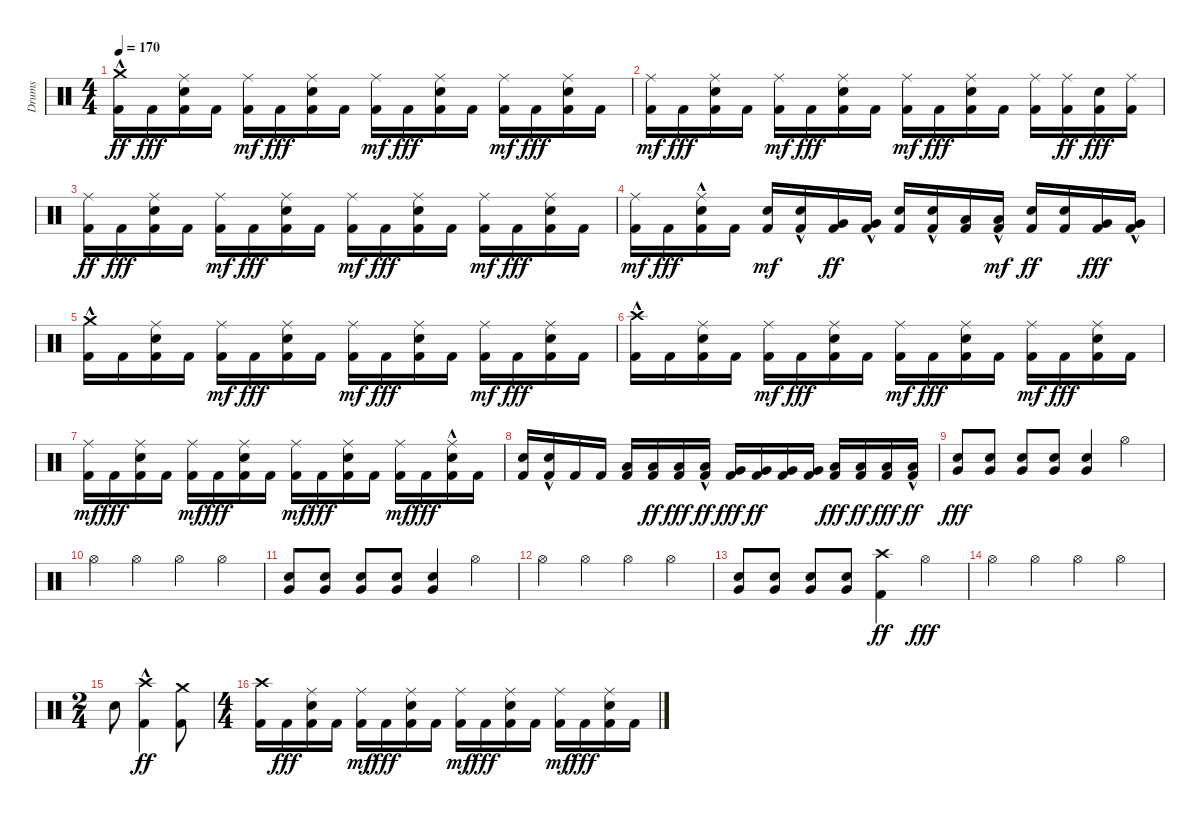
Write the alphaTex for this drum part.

\track ("Drums" "Drums") {instrument percussion}
\staff {score}
\articulation defaults
\ts (4 4)
\tempo 170
\clef neutral
\ks c
("Kick (hit) 2" "Crash medium (hit)"{hac}).16{dy ff} "Kick (hit) 2".16{dy fff} ("Kick (hit) 2" "Snare (hit) 2" "Ride (middle)").16 "Kick (hit) 2".16 ("Kick (hit) 2" "Ride (middle)").16{dy mf} "Kick (hit) 2".16{dy fff} ("Kick (hit) 2" "Snare (hit) 2" "Ride (middle)").16 "Kick (hit) 2".16 ("Kick (hit) 2" "Ride (middle)").16{dy mf} "Kick (hit) 2".16{dy fff} ("Kick (hit) 2" "Snare (hit) 2" "Ride (middle)").16 "Kick (hit) 2".16 ("Kick (hit) 2" "Ride (middle)").16{dy mf} "Kick (hit) 2".16{dy fff} ("Kick (hit) 2" "Snare (hit) 2" "Ride (middle)").16 "Kick (hit) 2".16 |
("Kick (hit) 2" "Ride (middle)").16{dy mf} "Kick (hit) 2".16{dy fff} ("Kick (hit) 2" "Snare (hit) 2" "Ride (middle)").16 "Kick (hit) 2".16 ("Kick (hit) 2" "Ride (middle)").16{dy mf} "Kick (hit) 2".16{dy fff} ("Kick (hit) 2" "Snare (hit) 2" "Ride (middle)").16 "Kick (hit) 2".16 ("Kick (hit) 2" "Ride (middle)").16{dy mf} "Kick (hit) 2".16{dy fff} ("Kick (hit) 2" "Snare (hit) 2" "Ride (middle)").16 "Kick (hit) 2".16 ("Kick (hit) 2" "Ride (middle)").16 ("Kick (hit) 2" "Ride (middle)").16{dy ff} ("Kick (hit) 2" "Snare (hit) 2").16{dy fff} ("Kick (hit) 2" "Ride (middle)").16 |
("Kick (hit) 2" "Ride (middle)").16{dy ff} "Kick (hit) 2".16{dy fff} ("Kick (hit) 2" "Snare (hit) 2" "Ride (middle)").16 "Kick (hit) 2".16 ("Kick (hit) 2" "Ride (middle)").16{dy mf} "Kick (hit) 2".16{dy fff} ("Kick (hit) 2" "Snare (hit) 2" "Ride (middle)").16 "Kick (hit) 2".16 ("Kick (hit) 2" "Ride (middle)").16{dy mf} "Kick (hit) 2".16{dy fff} ("Kick (hit) 2" "Snare (hit) 2" "Ride (middle)").16 "Kick (hit) 2".16 ("Kick (hit) 2" "Ride (middle)").16{dy mf} "Kick (hit) 2".16{dy fff} ("Kick (hit) 2" "Snare (hit) 2" "Ride (middle)").16 "Kick (hit) 2".16 |
("Kick (hit) 2" "Ride (middle)").16{dy mf} "Kick (hit) 2".16{dy fff} ("Kick (hit) 2" "Snare (hit) 2" "Ride (middle)"{hac}).16 "Kick (hit) 2".16 ("Kick (hit) 2" "Snare (hit) 2").16{dy mf} ("Kick (hit) 2" "Snare (hit) 2"{hac}).16 ("Kick (hit) 2" "Very Low Tom (hit)").16{dy ff} ("Kick (hit) 2" "Very Low Tom (hit)"{hac}).16 ("Kick (hit) 2" "Snare (hit) 2").16 ("Kick (hit) 2" "Snare (hit) 2"{hac}).16 ("Kick (hit) 2" "Low Tom (hit)").16 ("Kick (hit) 2" "Low Tom (hit)"{hac}).16{dy mf} ("Kick (hit) 2" "Snare (hit) 2").16{dy ff} ("Kick (hit) 2" "Snare (hit) 2").16 ("Kick (hit) 2" "Very Low Tom (hit)").16{dy fff} ("Kick (hit) 2" "Very Low Tom (hit)"{hac}).16 |
("Kick (hit) 2" "Crash medium (hit)"{hac}).16 "Kick (hit) 2".16 ("Kick (hit) 2" "Snare (hit) 2" "Ride (middle)").16 "Kick (hit) 2".16 ("Kick (hit) 2" "Ride (middle)").16{dy mf} "Kick (hit) 2".16{dy fff} ("Kick (hit) 2" "Snare (hit) 2" "Ride (middle)").16 "Kick (hit) 2".16 ("Kick (hit) 2" "Ride (middle)").16{dy mf} "Kick (hit) 2".16{dy fff} ("Kick (hit) 2" "Snare (hit) 2" "Ride (middle)").16 "Kick (hit) 2".16 ("Kick (hit) 2" "Ride (middle)").16{dy mf} "Kick (hit) 2".16{dy fff} ("Kick (hit) 2" "Snare (hit) 2" "Ride (middle)").16 "Kick (hit) 2".16 |
("Kick (hit) 2" "Crash high (hit)"{hac}).16 "Kick (hit) 2".16 ("Kick (hit) 2" "Snare (hit) 2" "Ride (middle)").16 "Kick (hit) 2".16 ("Kick (hit) 2" "Ride (middle)").16{dy mf} "Kick (hit) 2".16{dy fff} ("Kick (hit) 2" "Snare (hit) 2" "Ride (middle)").16 "Kick (hit) 2".16 ("Kick (hit) 2" "Ride (middle)").16{dy mf} "Kick (hit) 2".16{dy fff} ("Kick (hit) 2" "Snare (hit) 2" "Ride (middle)").16 "Kick (hit) 2".16 ("Kick (hit) 2" "Ride (middle)").16{dy mf} "Kick (hit) 2".16{dy fff} ("Kick (hit) 2" "Snare (hit) 2" "Ride (middle)").16 "Kick (hit) 2".16 |
("Kick (hit) 2" "Ride (middle)").16{dy mf} "Kick (hit) 2".16{dy fff} ("Kick (hit) 2" "Snare (hit) 2" "Ride (middle)").16 "Kick (hit) 2".16 ("Kick (hit) 2" "Ride (middle)").16{dy mf} "Kick (hit) 2".16{dy fff} ("Kick (hit) 2" "Snare (hit) 2" "Ride (middle)").16 "Kick (hit) 2".16 ("Kick (hit) 2" "Ride (middle)").16{dy mf} "Kick (hit) 2".16{dy fff} ("Kick (hit) 2" "Snare (hit) 2" "Ride (middle)").16 "Kick (hit) 2".16 ("Kick (hit) 2" "Ride (middle)").16{dy mf} "Kick (hit) 2".16{dy fff} ("Kick (hit) 2" "Snare (hit) 2" "Ride (middle)"{hac}).16 "Kick (hit) 2".16 |
("Kick (hit) 2" "Snare (hit) 2").16 ("Kick (hit) 2" "Snare (hit) 2"{hac}).16 "Kick (hit) 2".16 "Kick (hit) 2".16 ("Kick (hit) 2" "Low Tom (hit)").16 ("Kick (hit) 2" "Low Tom (hit)").16{dy ff} ("Kick (hit) 2" "Low Tom (hit)").16{dy fff} ("Kick (hit) 2" "Low Tom (hit)"{hac}).16{dy ff} ("Kick (hit) 2" "Very Low Tom (hit)").16{dy fff} ("Kick (hit) 2" "Very Low Tom (hit)").16{dy ff} ("Kick (hit) 2" "Very Low Tom (hit)").16 ("Kick (hit) 2" "Very Low Tom (hit)").16 ("Kick (hit) 2" "Low Floor Tom (hit)").16{dy fff} ("Kick (hit) 2" "Low Floor Tom (hit)").16{dy ff} ("Kick (hit) 2" "Low Floor Tom (hit)").16{dy fff} ("Kick (hit) 2"{hac} "Low Floor Tom (hit)"{hac}).16{dy ff} |
("Snare (hit) 2" "Very Low Tom (hit)").8{dy fff} ("Snare (hit) 2" "Very Low Tom (hit)").8 ("Snare (hit) 2" "Very Low Tom (hit)").8 ("Snare (hit) 2" "Very Low Tom (hit)").8 ("Snare (hit) 2" "Very Low Tom (hit)").4 "Hi-Hat (open)".4 |
"Hi-Hat (open)".4 "Hi-Hat (open)".4 "Hi-Hat (open)".4 "Hi-Hat (open)".4 |
("Snare (hit) 2" "Very Low Tom (hit)").8 ("Snare (hit) 2" "Very Low Tom (hit)").8 ("Snare (hit) 2" "Very Low Tom (hit)").8 ("Snare (hit) 2" "Very Low Tom (hit)").8 ("Snare (hit) 2" "Very Low Tom (hit)").4 "Hi-Hat (open)".4 |
"Hi-Hat (open)".4 "Hi-Hat (open)".4 "Hi-Hat (open)".4 "Hi-Hat (open)".4 |
("Snare (hit) 2" "Very Low Tom (hit)").8 ("Snare (hit) 2" "Very Low Tom (hit)").8 ("Snare (hit) 2" "Very Low Tom (hit)").8 ("Snare (hit) 2" "Very Low Tom (hit)").8 ("Kick (hit) 2" "Crash high (hit)").4{dy ff} "Hi-Hat (open)".4{dy fff} |
"Hi-Hat (open)".4 "Hi-Hat (open)".4 "Hi-Hat (open)".4 "Hi-Hat (open)".4 |
\ts (2 4)
"Snare (hit) 2".8 ("Kick (hit) 2" "Crash high (hit)"{hac}).4{dy ff} ("Kick (hit) 2" "Crash medium (hit)").8 |
\ts (4 4)
("Kick (hit) 2" "Crash high (hit)").16 "Kick (hit) 2".16{dy fff} ("Kick (hit) 2" "Snare (hit) 2" "Ride (middle)").16 "Kick (hit) 2".16 ("Kick (hit) 2" "Ride (middle)").16{dy mf} "Kick (hit) 2".16{dy fff} ("Kick (hit) 2" "Snare (hit) 2" "Ride (middle)").16 "Kick (hit) 2".16 ("Kick (hit) 2" "Ride (middle)").16{dy mf} "Kick (hit) 2".16{dy fff} ("Kick (hit) 2" "Snare (hit) 2" "Ride (middle)").16 "Kick (hit) 2".16 ("Kick (hit) 2" "Ride (middle)").16{dy mf} "Kick (hit) 2".16{dy fff} ("Kick (hit) 2" "Snare (hit) 2" "Ride (middle)").16 "Kick (hit) 2".16
